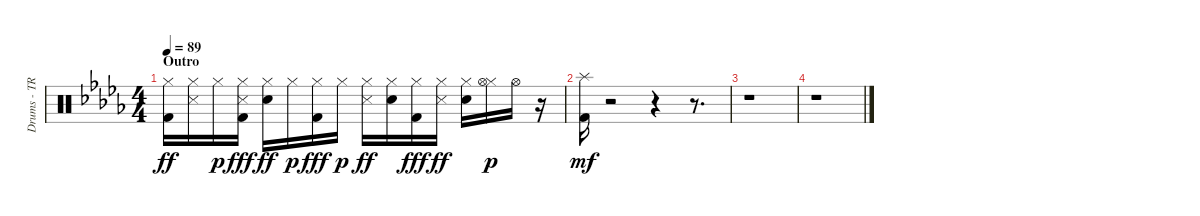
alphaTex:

\track ("Drums - TR808" "Drums - TR") {instrument percussion}
\staff {score}
\articulation defaults
\ts (4 4)
\section ("" "Outro")
\tempo 89
\clef neutral
\ks bbminor
("Kick (hit) 2" "Hi-Hat (closed)").16{dy ff} ("Snare (side stick) 3" "Hi-Hat (closed)").16 "Hi-Hat (closed)".16{dy p} ("Kick (hit) 2" "Snare (side stick) 3" "Hi-Hat (closed)").16{dy fff} ("Snare (hit) 2" "Hi-Hat (closed)").16{dy ff} "Hi-Hat (closed)".16{dy p} ("Kick (hit) 2" "Hi-Hat (closed)").16{dy fff} "Hi-Hat (closed)".16{dy p} ("Snare (side stick) 3" "Hi-Hat (closed)").16{dy ff} ("Snare (hit) 2" "Hi-Hat (closed)").16 ("Kick (hit) 2" "Hi-Hat (closed)").16{dy fff} ("Snare (side stick) 3" "Hi-Hat (closed)").16{dy ff} ("Snare (hit) 2" "Hi-Hat (closed)").16 ("Hi-Hat (closed)" "Hi-Hat (open)").16{dy p} "Hi-Hat (open)".16 r.16 |
("Kick (hit) 2" "Splash (hit)").16{dy mf} r.2 r.4 r.8{d} |
r.1 |
r.1
